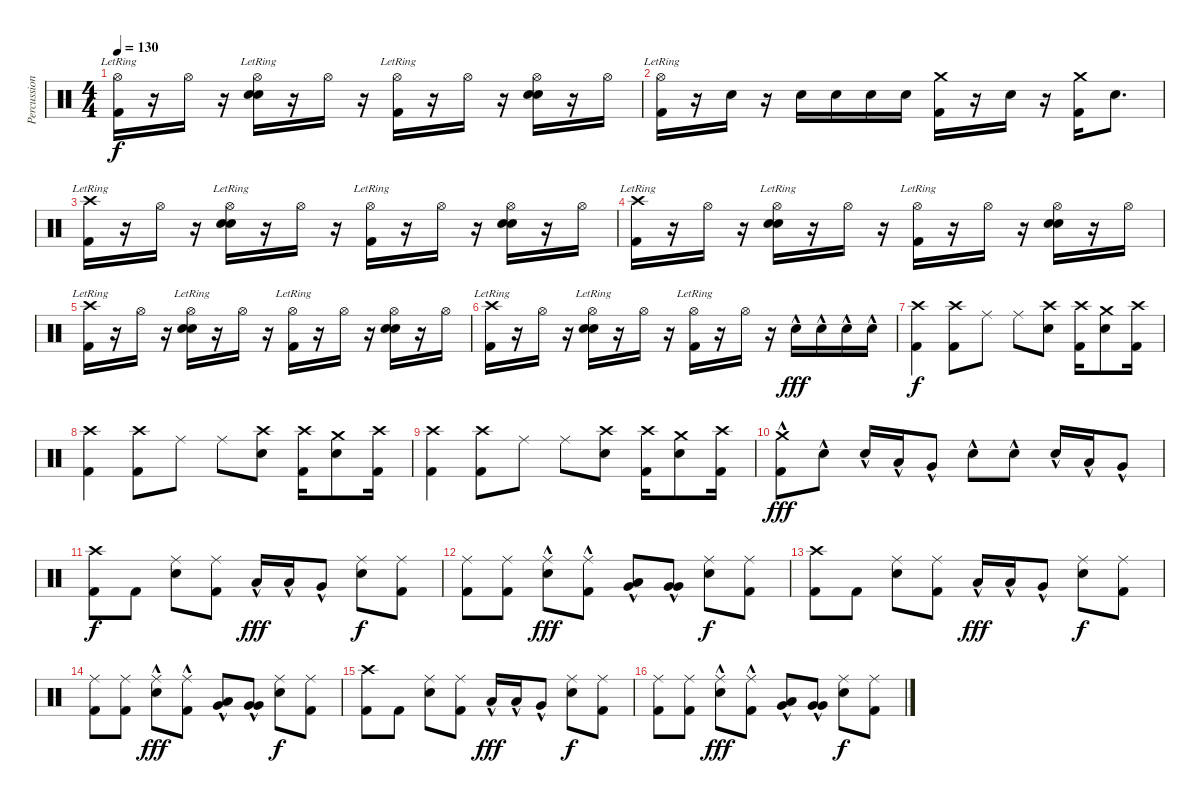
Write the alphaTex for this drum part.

\track ("Percussion" "Percussion") {instrument percussion}
\staff {score}
\articulation defaults
\ts (4 4)
\tempo 130
\clef neutral
\ks c
("Hi-Hat (open)"{lr} "Kick (hit) 2").16{dy f} r.16 "Hi-Hat (open)".16 r.16 ("Hi-Hat (open)"{lr} "Snare (hit) 2" "Electric Snare (hit)").16 r.16 "Hi-Hat (open)".16 r.16 ("Hi-Hat (open)"{lr} "Kick (hit) 2").16 r.16 "Hi-Hat (open)".16 r.16 ("Hi-Hat (open)" "Snare (hit) 2" "Electric Snare (hit)").16 r.16 "Hi-Hat (open)".16 |
("Hi-Hat (open)"{lr} "Kick (hit) 2").16 r.16 "Snare (hit) 2".16 r.16 "Snare (hit) 2".16 "Snare (hit) 2".16 "Snare (hit) 2".16 "Snare (hit) 2".16 ("Crash medium (hit)" "Kick (hit) 2").16 r.16 "Snare (hit) 2".16 r.16 ("Crash medium (hit)" "Kick (hit) 2").16 "Snare (hit) 2".8{d} |
("Crash high (hit)"{lr} "Kick (hit) 2").16 r.16 "Hi-Hat (open)".16 r.16 ("Hi-Hat (open)"{lr} "Snare (hit) 2" "Electric Snare (hit)").16 r.16 "Hi-Hat (open)".16 r.16 ("Hi-Hat (open)"{lr} "Kick (hit) 2").16 r.16 "Hi-Hat (open)".16 r.16 ("Hi-Hat (open)" "Snare (hit) 2" "Electric Snare (hit)").16 r.16 "Hi-Hat (open)".16 |
("Crash high (hit)"{lr} "Kick (hit) 2").16 r.16 "Hi-Hat (open)".16 r.16 ("Hi-Hat (open)"{lr} "Snare (hit) 2" "Electric Snare (hit)").16 r.16 "Hi-Hat (open)".16 r.16 ("Hi-Hat (open)"{lr} "Kick (hit) 2").16 r.16 "Hi-Hat (open)".16 r.16 ("Hi-Hat (open)" "Snare (hit) 2" "Electric Snare (hit)").16 r.16 "Hi-Hat (open)".16 |
("Crash high (hit)"{lr} "Kick (hit) 2").16 r.16 "Hi-Hat (open)".16 r.16 ("Hi-Hat (open)"{lr} "Snare (hit) 2" "Electric Snare (hit)").16 r.16 "Hi-Hat (open)".16 r.16 ("Hi-Hat (open)"{lr} "Kick (hit) 2").16 r.16 "Hi-Hat (open)".16 r.16 ("Hi-Hat (open)" "Snare (hit) 2" "Electric Snare (hit)").16 r.16 "Hi-Hat (open)".16 |
("Crash high (hit)"{lr} "Kick (hit) 2").16 r.16 "Hi-Hat (open)".16 r.16 ("Hi-Hat (open)"{lr} "Snare (hit) 2" "Electric Snare (hit)").16 r.16 "Hi-Hat (open)".16 r.16 ("Hi-Hat (open)"{lr} "Kick (hit) 2").16 r.16 "Hi-Hat (open)".16 r.16 "Snare (hit) 2"{hac}.16{dy fff} "Snare (hit) 2"{hac}.16 "Snare (hit) 2"{hac}.16 "Snare (hit) 2"{hac}.16 |
("Crash high (hit)" "Kick (hit) 2").4{dy f} ("Crash high (hit)" "Kick (hit) 2").8 "Ride (middle)".8 "Ride (middle)".8 ("Crash high (hit)" "Snare (hit) 2").8 ("Crash high (hit)" "Kick (hit) 2").16 ("Crash medium (hit)" "Snare (hit) 2").8 ("Crash high (hit)" "Kick (hit) 2").16 |
("Crash high (hit)" "Kick (hit) 2").4 ("Crash high (hit)" "Kick (hit) 2").8 "Ride (middle)".8 "Ride (middle)".8 ("Crash high (hit)" "Snare (hit) 2").8 ("Crash high (hit)" "Kick (hit) 2").16 ("Crash medium (hit)" "Snare (hit) 2").8 ("Crash high (hit)" "Kick (hit) 2").16 |
("Crash high (hit)" "Kick (hit) 2").4 ("Crash high (hit)" "Kick (hit) 2").8 "Ride (middle)".8 "Ride (middle)".8 ("Crash high (hit)" "Snare (hit) 2").8 ("Crash high (hit)" "Kick (hit) 2").16 ("Crash medium (hit)" "Snare (hit) 2").8 ("Crash high (hit)" "Kick (hit) 2").16 |
("Crash medium (hit)"{hac} "Kick (hit) 2"{hac}).8{dy fff} "Snare (hit) 2"{hac}.8 "Snare (hit) 2"{hac}.16 "Low Tom (hit)"{hac}.16 "Very Low Tom (hit)"{hac}.8 "Snare (hit) 2"{hac}.8 "Snare (hit) 2"{hac}.8 "Snare (hit) 2"{hac}.16 "Low Tom (hit)"{hac}.16 "Very Low Tom (hit)"{hac}.8 |
("Crash high (hit)" "Kick (hit) 2").8{dy f} "Kick (hit) 2".8 ("Ride (middle)" "Snare (hit) 2").8 ("Ride (middle)" "Kick (hit) 2").8 "Low Tom (hit)"{hac}.16{dy fff} "Low Tom (hit)"{hac}.16 "Very Low Tom (hit)"{hac}.8 ("Ride (middle)" "Snare (hit) 2").8{dy f} ("Ride (middle)" "Kick (hit) 2").8 |
("Ride (middle)" "Kick (hit) 2").8 ("Ride (middle)" "Kick (hit) 2").8 ("Ride (middle)" "Snare (hit) 2"{hac}).8{dy fff} ("Ride (middle)" "Kick (hit) 2"{hac}).8 ("Very Low Tom (hit)" "Low Tom (hit)"{hac}).8 ("Very Low Tom (hit)" "Very Low Tom (hit)"{hac}).8 ("Ride (middle)" "Snare (hit) 2").8{dy f} ("Ride (middle)" "Kick (hit) 2").8 |
("Crash high (hit)" "Kick (hit) 2").8 "Kick (hit) 2".8 ("Ride (middle)" "Snare (hit) 2").8 ("Ride (middle)" "Kick (hit) 2").8 "Low Tom (hit)"{hac}.16{dy fff} "Low Tom (hit)"{hac}.16 "Very Low Tom (hit)"{hac}.8 ("Ride (middle)" "Snare (hit) 2").8{dy f} ("Ride (middle)" "Kick (hit) 2").8 |
("Ride (middle)" "Kick (hit) 2").8 ("Ride (middle)" "Kick (hit) 2").8 ("Ride (middle)" "Snare (hit) 2"{hac}).8{dy fff} ("Ride (middle)" "Kick (hit) 2"{hac}).8 ("Very Low Tom (hit)" "Low Tom (hit)"{hac}).8 ("Very Low Tom (hit)" "Very Low Tom (hit)"{hac}).8 ("Ride (middle)" "Snare (hit) 2").8{dy f} ("Ride (middle)" "Kick (hit) 2").8 |
("Crash high (hit)" "Kick (hit) 2").8 "Kick (hit) 2".8 ("Ride (middle)" "Snare (hit) 2").8 ("Ride (middle)" "Kick (hit) 2").8 "Low Tom (hit)"{hac}.16{dy fff} "Low Tom (hit)"{hac}.16 "Very Low Tom (hit)"{hac}.8 ("Ride (middle)" "Snare (hit) 2").8{dy f} ("Ride (middle)" "Kick (hit) 2").8 |
("Ride (middle)" "Kick (hit) 2").8 ("Ride (middle)" "Kick (hit) 2").8 ("Ride (middle)" "Snare (hit) 2"{hac}).8{dy fff} ("Ride (middle)" "Kick (hit) 2"{hac}).8 ("Very Low Tom (hit)" "Low Tom (hit)"{hac}).8 ("Very Low Tom (hit)" "Very Low Tom (hit)"{hac}).8 ("Ride (middle)" "Snare (hit) 2").8{dy f} ("Ride (middle)" "Kick (hit) 2").8
